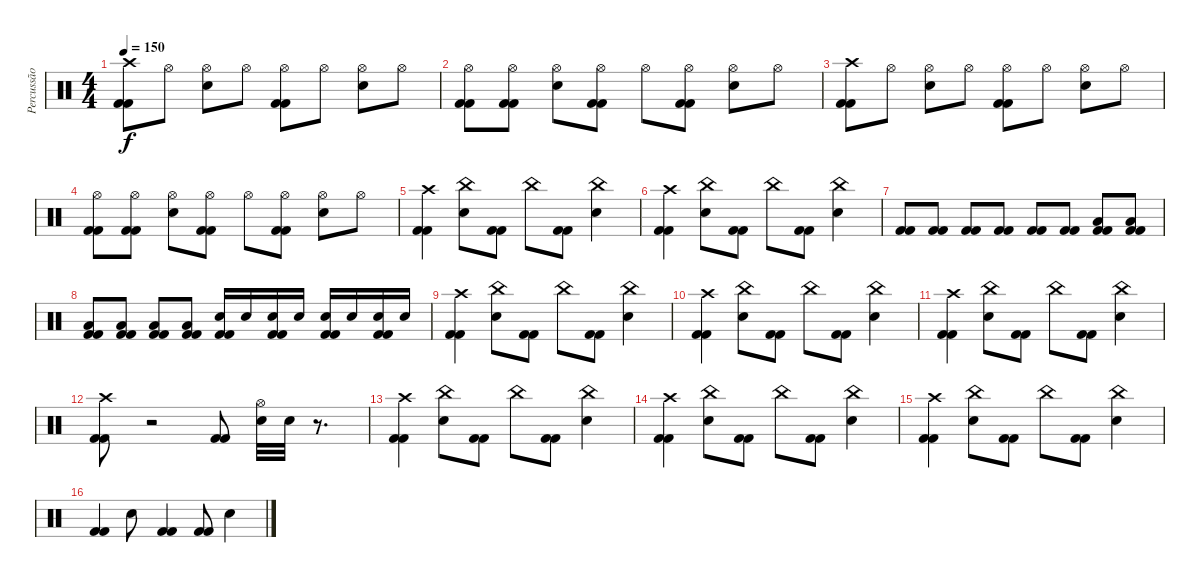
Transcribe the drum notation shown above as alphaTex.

\track ("Percussão" "Percussão") {instrument percussion}
\staff {score}
\articulation defaults
\ts (4 4)
\tempo 150
\clef neutral
\ks c
("Crash high (hit)" "Kick (hit) 2" "Kick (hit) 2").8{dy f} "Hi-Hat (open)".8 ("Hi-Hat (open)" "Electric Snare (hit)").8 "Hi-Hat (open)".8 ("Hi-Hat (open)" "Kick (hit) 2" "Kick (hit) 2").8 "Hi-Hat (open)".8 ("Hi-Hat (open)" "Electric Snare (hit)").8 "Hi-Hat (open)".8 |
("Hi-Hat (open)" "Kick (hit) 2" "Kick (hit) 2").8 ("Hi-Hat (open)" "Kick (hit) 2" "Kick (hit) 2").8 ("Hi-Hat (open)" "Electric Snare (hit)").8 ("Hi-Hat (open)" "Kick (hit) 2" "Kick (hit) 2").8 "Hi-Hat (open)".8 ("Hi-Hat (open)" "Kick (hit) 2" "Kick (hit) 2").8 ("Hi-Hat (open)" "Electric Snare (hit)").8 "Hi-Hat (open)".8 |
("Crash high (hit)" "Kick (hit) 2" "Kick (hit) 2").8 "Hi-Hat (open)".8 ("Hi-Hat (open)" "Electric Snare (hit)").8 "Hi-Hat (open)".8 ("Hi-Hat (open)" "Kick (hit) 2" "Kick (hit) 2").8 "Hi-Hat (open)".8 ("Hi-Hat (open)" "Electric Snare (hit)").8 "Hi-Hat (open)".8 |
("Hi-Hat (open)" "Kick (hit) 2" "Kick (hit) 2").8 ("Hi-Hat (open)" "Kick (hit) 2" "Kick (hit) 2").8 ("Hi-Hat (open)" "Electric Snare (hit)").8 ("Hi-Hat (open)" "Kick (hit) 2" "Kick (hit) 2").8 "Hi-Hat (open)".8 ("Hi-Hat (open)" "Kick (hit) 2" "Kick (hit) 2").8 ("Hi-Hat (open)" "Electric Snare (hit)").8 "Hi-Hat (open)".8 |
("Crash high (hit)" "Kick (hit) 2" "Kick (hit) 2").4 ("China (hit)" "Electric Snare (hit)").8 ("Kick (hit) 2" "Kick (hit) 2").8 "China (hit)".8 ("Kick (hit) 2" "Kick (hit) 2").8 ("China (hit)" "Electric Snare (hit)").4 |
("Crash high (hit)" "Kick (hit) 2" "Kick (hit) 2").4 ("China (hit)" "Electric Snare (hit)").8 ("Kick (hit) 2" "Kick (hit) 2").8 "China (hit)".8 ("Kick (hit) 2" "Kick (hit) 2").8 ("China (hit)" "Electric Snare (hit)").4 |
("Kick (hit) 2" "Kick (hit) 2").8 ("Kick (hit) 2" "Kick (hit) 2").8 ("Kick (hit) 2" "Kick (hit) 2").8 ("Kick (hit) 2" "Kick (hit) 2").8 ("Kick (hit) 2" "Kick (hit) 2").8 ("Kick (hit) 2" "Kick (hit) 2").8 ("Low Tom (hit)" "Kick (hit) 2" "Kick (hit) 2").8 ("Low Tom (hit)" "Kick (hit) 2" "Kick (hit) 2").8 |
("Low Tom (hit)" "Kick (hit) 2" "Kick (hit) 2").8 ("Low Tom (hit)" "Kick (hit) 2" "Kick (hit) 2").8 ("Low Tom (hit)" "Kick (hit) 2" "Kick (hit) 2").8 ("Low Tom (hit)" "Kick (hit) 2" "Kick (hit) 2").8 ("Electric Snare (hit)" "Kick (hit) 2" "Kick (hit) 2").16 "Electric Snare (hit)".16 ("Electric Snare (hit)" "Kick (hit) 2" "Kick (hit) 2").16 "Electric Snare (hit)".16 ("Electric Snare (hit)" "Kick (hit) 2" "Kick (hit) 2").16 "Electric Snare (hit)".16 ("Electric Snare (hit)" "Kick (hit) 2" "Kick (hit) 2").16 "Electric Snare (hit)".16 |
("Crash high (hit)" "Kick (hit) 2" "Kick (hit) 2").4 ("China (hit)" "Electric Snare (hit)").8 ("Kick (hit) 2" "Kick (hit) 2").8 "China (hit)".8 ("Kick (hit) 2" "Kick (hit) 2").8 ("China (hit)" "Electric Snare (hit)").4 |
("Crash high (hit)" "Kick (hit) 2" "Kick (hit) 2").4 ("China (hit)" "Electric Snare (hit)").8 ("Kick (hit) 2" "Kick (hit) 2").8 "China (hit)".8 ("Kick (hit) 2" "Kick (hit) 2").8 ("China (hit)" "Electric Snare (hit)").4 |
("Crash high (hit)" "Kick (hit) 2" "Kick (hit) 2").4 ("China (hit)" "Electric Snare (hit)").8 ("Kick (hit) 2" "Kick (hit) 2").8 "China (hit)".8 ("Kick (hit) 2" "Kick (hit) 2").8 ("China (hit)" "Electric Snare (hit)").4 |
("Crash high (hit)" "Kick (hit) 2" "Kick (hit) 2").8 r.2 ("Kick (hit) 2" "Kick (hit) 2").8 ("Hi-Hat (open)" "Electric Snare (hit)").32 "Electric Snare (hit)".32 r.8{d} |
("Crash high (hit)" "Kick (hit) 2" "Kick (hit) 2").4 ("China (hit)" "Electric Snare (hit)").8 ("Kick (hit) 2" "Kick (hit) 2").8 "China (hit)".8 ("Kick (hit) 2" "Kick (hit) 2").8 ("China (hit)" "Electric Snare (hit)").4 |
("Crash high (hit)" "Kick (hit) 2" "Kick (hit) 2").4 ("China (hit)" "Electric Snare (hit)").8 ("Kick (hit) 2" "Kick (hit) 2").8 "China (hit)".8 ("Kick (hit) 2" "Kick (hit) 2").8 ("China (hit)" "Electric Snare (hit)").4 |
("Crash high (hit)" "Kick (hit) 2" "Kick (hit) 2").4 ("China (hit)" "Electric Snare (hit)").8 ("Kick (hit) 2" "Kick (hit) 2").8 "China (hit)".8 ("Kick (hit) 2" "Kick (hit) 2").8 ("China (hit)" "Electric Snare (hit)").4 |
("Kick (hit) 2" "Kick (hit) 2").4 "Electric Snare (hit)".8 ("Kick (hit) 2" "Kick (hit) 2").4 ("Kick (hit) 2" "Kick (hit) 2").8 "Electric Snare (hit)".4
